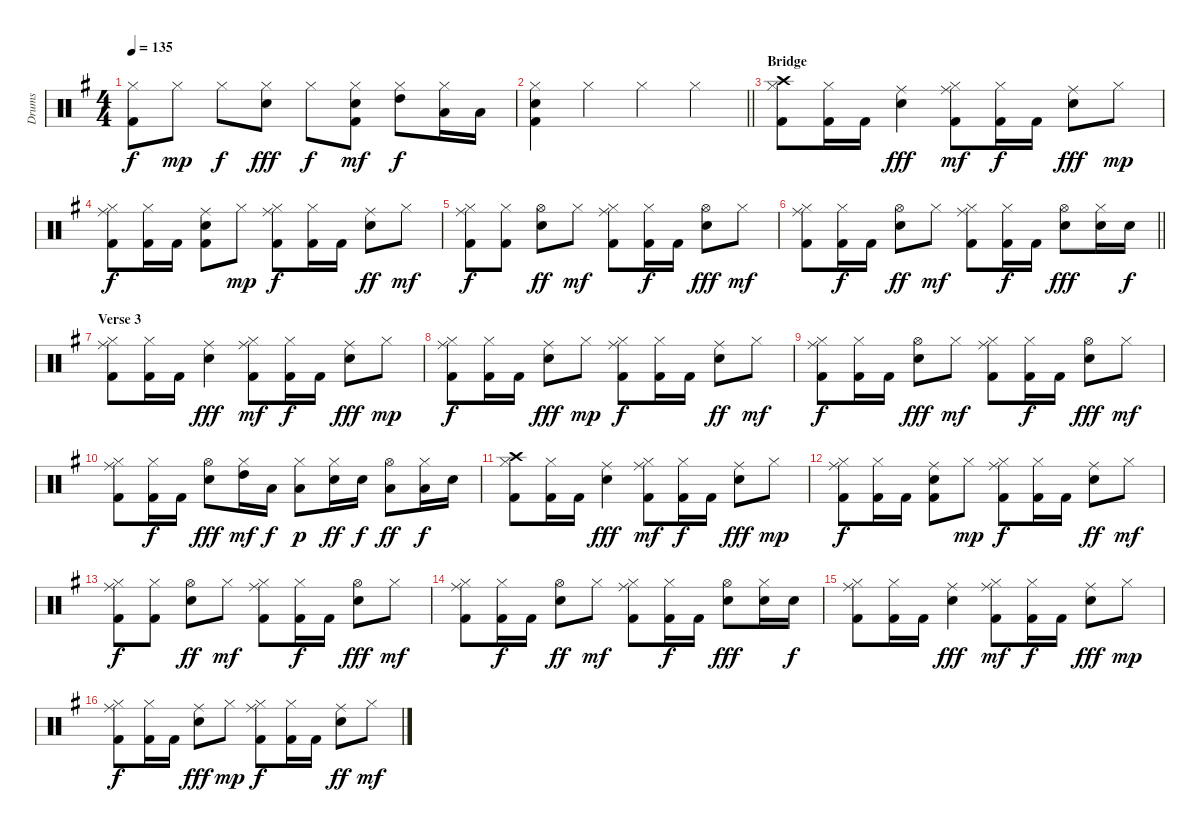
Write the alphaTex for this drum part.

\track ("Drums" "Drums") {instrument percussion}
\staff {score}
\articulation defaults
\ts (4 4)
\tempo 135
\clef neutral
\ks g
("Hi-Hat (closed)" "Kick (hit) 2").8{dy f} "Hi-Hat (closed)".8{dy mp} "Hi-Hat (closed)".8{dy f} ("Hi-Hat (closed)" "Electric Snare (hit)").8{dy fff} "Hi-Hat (closed)".8{dy f} ("Hi-Hat (closed)" "Electric Snare (hit)" "Kick (hit) 2").8{dy mf} ("Hi-Hat (closed)" "High Tom (hit)").8{dy f} ("Hi-Hat (closed)" "Low Tom (hit)").16 "Low Floor Tom (hit)".16 |
\barLineRight lightlight
("Hi-Hat (closed)" "Electric Snare (hit)" "Kick (hit) 2").4 "Hi-Hat (closed)".4 "Hi-Hat (closed)".4 "Hi-Hat (closed)".4 |
\section ("" "Bridge")
("Hi-Hat (closed)" "Crash high (hit)" "Kick (hit) 2").8 ("Hi-Hat (closed)" "Kick (hit) 2").16 "Kick (hit) 2".16 ("Ride (middle)" "Electric Snare (hit)").4{dy fff} ("Hi-Hat (closed)" "Ride (middle)" "Kick (hit) 2").8{dy mf} ("Hi-Hat (closed)" "Kick (hit) 2").16{dy f} "Kick (hit) 2".16 ("Ride (middle)" "Electric Snare (hit)").8{dy fff} "Hi-Hat (closed)".8{dy mp} |
("Hi-Hat (closed)" "Ride (middle)" "Kick (hit) 2").8{dy f} ("Hi-Hat (closed)" "Kick (hit) 2").16 "Kick (hit) 2".16 ("Ride (middle)" "Electric Snare (hit)" "Kick (hit) 2").8 "Hi-Hat (closed)".8{dy mp} ("Hi-Hat (closed)" "Ride (middle)" "Kick (hit) 2").8{dy f} ("Hi-Hat (closed)" "Kick (hit) 2").16 "Kick (hit) 2".16 ("Ride (middle)" "Electric Snare (hit)").8{dy ff} "Hi-Hat (closed)".8{dy mf} |
("Hi-Hat (closed)" "Ride (middle)" "Kick (hit) 2").8{dy f} ("Hi-Hat (closed)" "Kick (hit) 2").8 ("Hi-Hat (open)" "Electric Snare (hit)").8{dy ff} "Hi-Hat (closed)".8{dy mf} ("Hi-Hat (closed)" "Ride (middle)" "Kick (hit) 2").8 ("Hi-Hat (closed)" "Kick (hit) 2").16{dy f} "Kick (hit) 2".16 ("Hi-Hat (open)" "Electric Snare (hit)").8{dy fff} "Hi-Hat (closed)".8{dy mf} |
\barLineRight lightlight
("Hi-Hat (closed)" "Ride (middle)" "Kick (hit) 2").8 ("Hi-Hat (closed)" "Kick (hit) 2").16{dy f} "Kick (hit) 2".16 ("Hi-Hat (open)" "Electric Snare (hit)").8{dy ff} "Hi-Hat (closed)".8{dy mf} ("Hi-Hat (closed)" "Ride (middle)" "Kick (hit) 2").8 ("Hi-Hat (closed)" "Kick (hit) 2").16{dy f} "Kick (hit) 2".16 ("Hi-Hat (open)" "Electric Snare (hit)").8{dy fff} ("Hi-Hat (closed)" "Electric Snare (hit)").16 "Electric Snare (hit)".16{dy f} |
\section ("" "Verse 3")
("Hi-Hat (closed)" "Ride (middle)" "Kick (hit) 2").8 ("Hi-Hat (closed)" "Kick (hit) 2").16 "Kick (hit) 2".16 ("Ride (middle)" "Electric Snare (hit)").4{dy fff} ("Hi-Hat (closed)" "Ride (middle)" "Kick (hit) 2").8{dy mf} ("Hi-Hat (closed)" "Kick (hit) 2").16{dy f} "Kick (hit) 2".16 ("Ride (middle)" "Electric Snare (hit)").8{dy fff} "Hi-Hat (closed)".8{dy mp} |
("Hi-Hat (closed)" "Ride (middle)" "Kick (hit) 2").8{dy f} ("Hi-Hat (closed)" "Kick (hit) 2").16 "Kick (hit) 2".16 ("Ride (middle)" "Electric Snare (hit)").8{dy fff} "Hi-Hat (closed)".8{dy mp} ("Hi-Hat (closed)" "Ride (middle)" "Kick (hit) 2").8{dy f} ("Hi-Hat (closed)" "Kick (hit) 2").16 "Kick (hit) 2".16 ("Ride (middle)" "Electric Snare (hit)").8{dy ff} "Hi-Hat (closed)".8{dy mf} |
("Hi-Hat (closed)" "Ride (middle)" "Kick (hit) 2").8{dy f} ("Hi-Hat (closed)" "Kick (hit) 2").16 "Kick (hit) 2".16 ("Hi-Hat (open)" "Electric Snare (hit)").8{dy fff} "Hi-Hat (closed)".8{dy mf} ("Hi-Hat (closed)" "Ride (middle)" "Kick (hit) 2").8 ("Hi-Hat (closed)" "Kick (hit) 2").16{dy f} "Kick (hit) 2".16 ("Hi-Hat (open)" "Electric Snare (hit)").8{dy fff} "Hi-Hat (closed)".8{dy mf} |
("Hi-Hat (closed)" "Ride (middle)" "Kick (hit) 2").8 ("Hi-Hat (closed)" "Kick (hit) 2").16{dy f} "Kick (hit) 2".16 ("Hi-Hat (open)" "Electric Snare (hit)").8{dy fff} ("Hi-Hat (closed)" "High Tom (hit)").16{dy mf} "Low Tom (hit)".16{dy f} ("Hi-Hat (closed)" "Low Floor Tom (hit)").8{dy p} ("Hi-Hat (closed)" "Electric Snare (hit)").16{dy ff} "Electric Snare (hit)".16{dy f} ("Hi-Hat (open)" "Low Tom (hit)").8{dy ff} ("Hi-Hat (closed)" "Low Tom (hit)").16{dy f} "Electric Snare (hit)".16 |
("Hi-Hat (closed)" "Crash high (hit)" "Kick (hit) 2").8 ("Hi-Hat (closed)" "Kick (hit) 2").16 "Kick (hit) 2".16 ("Ride (middle)" "Electric Snare (hit)").4{dy fff} ("Hi-Hat (closed)" "Ride (middle)" "Kick (hit) 2").8{dy mf} ("Hi-Hat (closed)" "Kick (hit) 2").16{dy f} "Kick (hit) 2".16 ("Ride (middle)" "Electric Snare (hit)").8{dy fff} "Hi-Hat (closed)".8{dy mp} |
("Hi-Hat (closed)" "Ride (middle)" "Kick (hit) 2").8{dy f} ("Hi-Hat (closed)" "Kick (hit) 2").16 "Kick (hit) 2".16 ("Ride (middle)" "Electric Snare (hit)" "Kick (hit) 2").8 "Hi-Hat (closed)".8{dy mp} ("Hi-Hat (closed)" "Ride (middle)" "Kick (hit) 2").8{dy f} ("Hi-Hat (closed)" "Kick (hit) 2").16 "Kick (hit) 2".16 ("Ride (middle)" "Electric Snare (hit)").8{dy ff} "Hi-Hat (closed)".8{dy mf} |
("Hi-Hat (closed)" "Ride (middle)" "Kick (hit) 2").8{dy f} ("Hi-Hat (closed)" "Kick (hit) 2").8 ("Hi-Hat (open)" "Electric Snare (hit)").8{dy ff} "Hi-Hat (closed)".8{dy mf} ("Hi-Hat (closed)" "Ride (middle)" "Kick (hit) 2").8 ("Hi-Hat (closed)" "Kick (hit) 2").16{dy f} "Kick (hit) 2".16 ("Hi-Hat (open)" "Electric Snare (hit)").8{dy fff} "Hi-Hat (closed)".8{dy mf} |
("Hi-Hat (closed)" "Ride (middle)" "Kick (hit) 2").8 ("Hi-Hat (closed)" "Kick (hit) 2").16{dy f} "Kick (hit) 2".16 ("Hi-Hat (open)" "Electric Snare (hit)").8{dy ff} "Hi-Hat (closed)".8{dy mf} ("Hi-Hat (closed)" "Ride (middle)" "Kick (hit) 2").8 ("Hi-Hat (closed)" "Kick (hit) 2").16{dy f} "Kick (hit) 2".16 ("Hi-Hat (open)" "Electric Snare (hit)").8{dy fff} ("Hi-Hat (closed)" "Electric Snare (hit)").16 "Electric Snare (hit)".16{dy f} |
("Hi-Hat (closed)" "Ride (middle)" "Kick (hit) 2").8 ("Hi-Hat (closed)" "Kick (hit) 2").16 "Kick (hit) 2".16 ("Ride (middle)" "Electric Snare (hit)").4{dy fff} ("Hi-Hat (closed)" "Ride (middle)" "Kick (hit) 2").8{dy mf} ("Hi-Hat (closed)" "Kick (hit) 2").16{dy f} "Kick (hit) 2".16 ("Ride (middle)" "Electric Snare (hit)").8{dy fff} "Hi-Hat (closed)".8{dy mp} |
("Hi-Hat (closed)" "Ride (middle)" "Kick (hit) 2").8{dy f} ("Hi-Hat (closed)" "Kick (hit) 2").16 "Kick (hit) 2".16 ("Ride (middle)" "Electric Snare (hit)").8{dy fff} "Hi-Hat (closed)".8{dy mp} ("Hi-Hat (closed)" "Ride (middle)" "Kick (hit) 2").8{dy f} ("Hi-Hat (closed)" "Kick (hit) 2").16 "Kick (hit) 2".16 ("Ride (middle)" "Electric Snare (hit)").8{dy ff} "Hi-Hat (closed)".8{dy mf}
